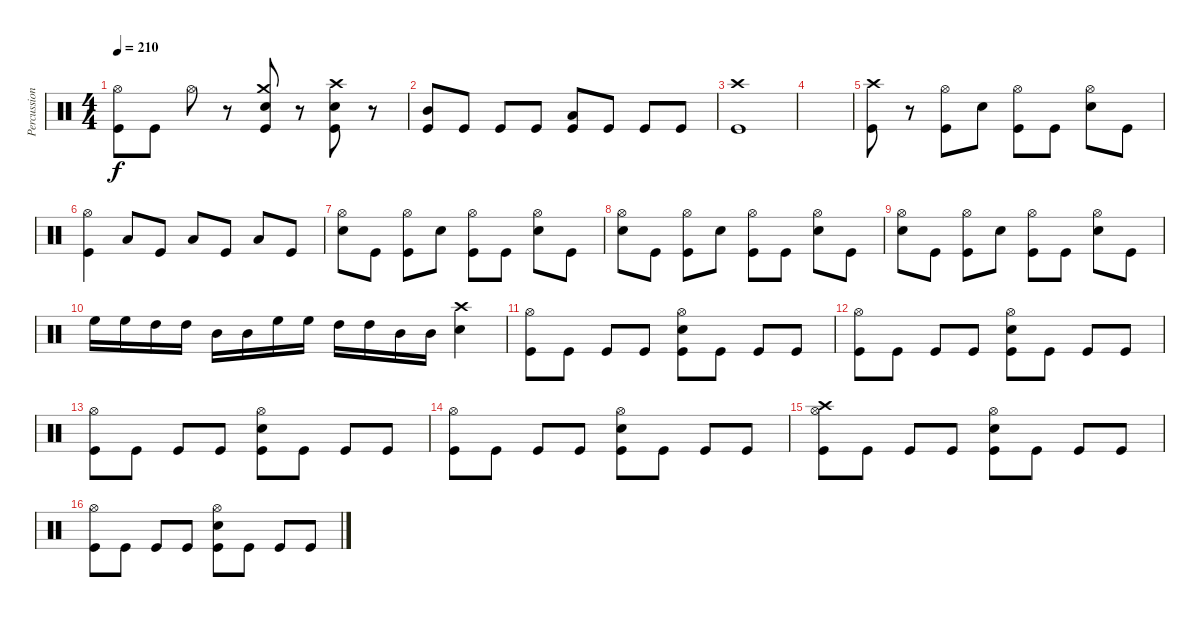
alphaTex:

\track ("Percussion" "Percussion") {instrument percussion}
\staff {score}
\articulation defaults
\ts (4 4)
\tempo 210
\clef neutral
\ks c
("Hi-Hat (open)" "Kick (hit)").8{dy f} "Kick (hit)".8 "Hi-Hat (open)".8 r.8 ("Crash medium (hit)" "Snare (hit) 2" "Kick (hit)").8 r.8 ("Crash high (hit)" "Snare (hit) 2" "Kick (hit)").8 r.8 |
("Mid Tom (hit)" "Kick (hit)").8 "Kick (hit)".8 "Kick (hit)".8 "Kick (hit)".8 ("Low Tom (hit)" "Kick (hit)").8 "Kick (hit)".8 "Kick (hit)".8 "Kick (hit)".8 |
("Crash high (hit)" "Kick (hit)").1 |
|
("Crash high (hit)" "Kick (hit)").8 r.8 ("Hi-Hat (open)" "Kick (hit)").8 "Snare (hit) 2".8 ("Hi-Hat (open)" "Kick (hit)").8 "Kick (hit)".8 ("Snare (hit) 2" "Hi-Hat (open)").8 "Kick (hit)".8 |
("Hi-Hat (open)" "Kick (hit)").4 "Low Floor Tom (hit)".8 "Kick (hit)".8 "Low Floor Tom (hit)".8 "Kick (hit)".8 "Low Floor Tom (hit)".8 "Kick (hit)".8 |
("Snare (hit) 2" "Hi-Hat (open)").8 "Kick (hit)".8 ("Hi-Hat (open)" "Kick (hit)").8 "Snare (hit) 2".8 ("Hi-Hat (open)" "Kick (hit)").8 "Kick (hit)".8 ("Snare (hit) 2" "Hi-Hat (open)").8 "Kick (hit)".8 |
("Snare (hit) 2" "Hi-Hat (open)").8 "Kick (hit)".8 ("Hi-Hat (open)" "Kick (hit)").8 "Snare (hit) 2".8 ("Hi-Hat (open)" "Kick (hit)").8 "Kick (hit)".8 ("Snare (hit) 2" "Hi-Hat (open)").8 "Kick (hit)".8 |
("Snare (hit) 2" "Hi-Hat (open)").8 "Kick (hit)".8 ("Hi-Hat (open)" "Kick (hit)").8 "Snare (hit) 2".8 ("Hi-Hat (open)" "Kick (hit)").8 "Kick (hit)".8 ("Snare (hit) 2" "Hi-Hat (open)").8 "Kick (hit)".8 |
"High Floor Tom (hit)".16 "High Floor Tom (hit)".16 "High Tom (hit)".16 "High Tom (hit)".16 "Mid Tom (hit)".16 "Mid Tom (hit)".16 "High Floor Tom (hit)".16 "High Floor Tom (hit)".16 "High Tom (hit)".16 "High Tom (hit)".16 "Mid Tom (hit)".16 "Mid Tom (hit)".16 ("Snare (hit) 2" "Crash high (hit)").4 |
("Hi-Hat (open)" "Kick (hit)").8 "Kick (hit)".8 "Kick (hit)".8 "Kick (hit)".8 ("Snare (hit) 2" "Hi-Hat (open)" "Kick (hit)").8 "Kick (hit)".8 "Kick (hit)".8 "Kick (hit)".8 |
("Hi-Hat (open)" "Kick (hit)").8 "Kick (hit)".8 "Kick (hit)".8 "Kick (hit)".8 ("Snare (hit) 2" "Hi-Hat (open)" "Kick (hit)").8 "Kick (hit)".8 "Kick (hit)".8 "Kick (hit)".8 |
("Hi-Hat (open)" "Kick (hit)").8 "Kick (hit)".8 "Kick (hit)".8 "Kick (hit)".8 ("Snare (hit) 2" "Hi-Hat (open)" "Kick (hit)").8 "Kick (hit)".8 "Kick (hit)".8 "Kick (hit)".8 |
("Hi-Hat (open)" "Kick (hit)").8 "Kick (hit)".8 "Kick (hit)".8 "Kick (hit)".8 ("Snare (hit) 2" "Hi-Hat (open)" "Kick (hit)").8 "Kick (hit)".8 "Kick (hit)".8 "Kick (hit)".8 |
("Crash high (hit)" "Hi-Hat (open)" "Kick (hit)").8 "Kick (hit)".8 "Kick (hit)".8 "Kick (hit)".8 ("Snare (hit) 2" "Hi-Hat (open)" "Kick (hit)").8 "Kick (hit)".8 "Kick (hit)".8 "Kick (hit)".8 |
("Hi-Hat (open)" "Kick (hit)").8 "Kick (hit)".8 "Kick (hit)".8 "Kick (hit)".8 ("Snare (hit) 2" "Hi-Hat (open)" "Kick (hit)").8 "Kick (hit)".8 "Kick (hit)".8 "Kick (hit)".8
